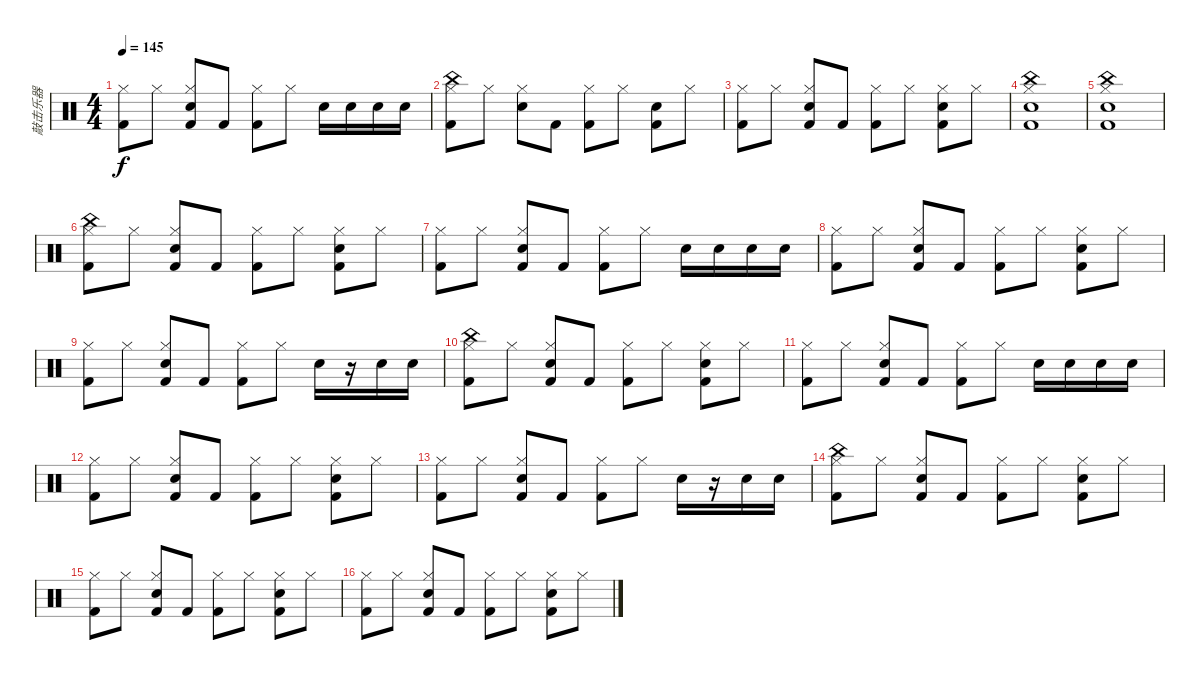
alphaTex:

\track ("敲击乐器" "敲击乐器") {instrument percussion}
\staff {score}
\articulation defaults
\ts (4 4)
\tempo 145
\clef neutral
\ks c
("Kick (hit) 2" "Hi-Hat (closed)").8{dy f} "Hi-Hat (closed)".8 ("Electric Snare (hit)" "Kick (hit) 2" "Hi-Hat (closed)").8 "Kick (hit) 2".8 ("Kick (hit) 2" "Hi-Hat (closed)").8 "Hi-Hat (closed)".8 "Electric Snare (hit)".16 "Electric Snare (hit)".16 "Electric Snare (hit)".16 "Electric Snare (hit)".16 |
("Kick (hit) 2" "Hi-Hat (closed)" "China (hit)").8 "Hi-Hat (closed)".8 ("Electric Snare (hit)" "Hi-Hat (closed)").8 "Kick (hit) 2".8 ("Kick (hit) 2" "Hi-Hat (closed)").8 "Hi-Hat (closed)".8 ("Electric Snare (hit)" "Kick (hit) 2").8 "Hi-Hat (closed)".8 |
("Kick (hit) 2" "Hi-Hat (closed)").8 "Hi-Hat (closed)".8 ("Electric Snare (hit)" "Kick (hit) 2" "Hi-Hat (closed)").8 "Kick (hit) 2".8 ("Kick (hit) 2" "Hi-Hat (closed)").8 "Hi-Hat (closed)".8 ("Electric Snare (hit)" "Kick (hit) 2" "Hi-Hat (closed)").8 "Hi-Hat (closed)".8 |
("China (hit)" "Hi-Hat (closed)" "Kick (hit) 2" "Electric Snare (hit)").1 |
("China (hit)" "Hi-Hat (closed)" "Kick (hit) 2" "Electric Snare (hit)").1 |
("Kick (hit) 2" "Hi-Hat (closed)" "China (hit)").8 "Hi-Hat (closed)".8 ("Electric Snare (hit)" "Kick (hit) 2" "Hi-Hat (closed)").8 "Kick (hit) 2".8 ("Kick (hit) 2" "Hi-Hat (closed)").8 "Hi-Hat (closed)".8 ("Electric Snare (hit)" "Kick (hit) 2" "Hi-Hat (closed)").8 "Hi-Hat (closed)".8 |
("Kick (hit) 2" "Hi-Hat (closed)").8 "Hi-Hat (closed)".8 ("Electric Snare (hit)" "Kick (hit) 2" "Hi-Hat (closed)").8 "Kick (hit) 2".8 ("Kick (hit) 2" "Hi-Hat (closed)").8 "Hi-Hat (closed)".8 "Electric Snare (hit)".16 "Electric Snare (hit)".16 "Electric Snare (hit)".16 "Electric Snare (hit)".16 |
("Kick (hit) 2" "Hi-Hat (closed)").8 "Hi-Hat (closed)".8 ("Electric Snare (hit)" "Kick (hit) 2" "Hi-Hat (closed)").8 "Kick (hit) 2".8 ("Kick (hit) 2" "Hi-Hat (closed)").8 "Hi-Hat (closed)".8 ("Electric Snare (hit)" "Kick (hit) 2" "Hi-Hat (closed)").8 "Hi-Hat (closed)".8 |
("Kick (hit) 2" "Hi-Hat (closed)").8 "Hi-Hat (closed)".8 ("Electric Snare (hit)" "Kick (hit) 2" "Hi-Hat (closed)").8 "Kick (hit) 2".8 ("Kick (hit) 2" "Hi-Hat (closed)").8 "Hi-Hat (closed)".8 "Electric Snare (hit)".16 r.16 "Electric Snare (hit)".16 "Electric Snare (hit)".16 |
("Kick (hit) 2" "Hi-Hat (closed)" "China (hit)").8 "Hi-Hat (closed)".8 ("Electric Snare (hit)" "Kick (hit) 2" "Hi-Hat (closed)").8 "Kick (hit) 2".8 ("Kick (hit) 2" "Hi-Hat (closed)").8 "Hi-Hat (closed)".8 ("Electric Snare (hit)" "Kick (hit) 2" "Hi-Hat (closed)").8 "Hi-Hat (closed)".8 |
("Kick (hit) 2" "Hi-Hat (closed)").8 "Hi-Hat (closed)".8 ("Electric Snare (hit)" "Kick (hit) 2" "Hi-Hat (closed)").8 "Kick (hit) 2".8 ("Kick (hit) 2" "Hi-Hat (closed)").8 "Hi-Hat (closed)".8 "Electric Snare (hit)".16 "Electric Snare (hit)".16 "Electric Snare (hit)".16 "Electric Snare (hit)".16 |
("Kick (hit) 2" "Hi-Hat (closed)").8 "Hi-Hat (closed)".8 ("Electric Snare (hit)" "Kick (hit) 2" "Hi-Hat (closed)").8 "Kick (hit) 2".8 ("Kick (hit) 2" "Hi-Hat (closed)").8 "Hi-Hat (closed)".8 ("Electric Snare (hit)" "Kick (hit) 2" "Hi-Hat (closed)").8 "Hi-Hat (closed)".8 |
("Kick (hit) 2" "Hi-Hat (closed)").8 "Hi-Hat (closed)".8 ("Electric Snare (hit)" "Kick (hit) 2" "Hi-Hat (closed)").8 "Kick (hit) 2".8 ("Kick (hit) 2" "Hi-Hat (closed)").8 "Hi-Hat (closed)".8 "Electric Snare (hit)".16 r.16 "Electric Snare (hit)".16 "Electric Snare (hit)".16 |
("Kick (hit) 2" "Hi-Hat (closed)" "China (hit)").8 "Hi-Hat (closed)".8 ("Electric Snare (hit)" "Kick (hit) 2" "Hi-Hat (closed)").8 "Kick (hit) 2".8 ("Kick (hit) 2" "Hi-Hat (closed)").8 "Hi-Hat (closed)".8 ("Electric Snare (hit)" "Kick (hit) 2" "Hi-Hat (closed)").8 "Hi-Hat (closed)".8 |
("Kick (hit) 2" "Hi-Hat (closed)").8 "Hi-Hat (closed)".8 ("Electric Snare (hit)" "Kick (hit) 2" "Hi-Hat (closed)").8 "Kick (hit) 2".8 ("Kick (hit) 2" "Hi-Hat (closed)").8 "Hi-Hat (closed)".8 ("Electric Snare (hit)" "Kick (hit) 2" "Hi-Hat (closed)").8 "Hi-Hat (closed)".8 |
("Kick (hit) 2" "Hi-Hat (closed)").8 "Hi-Hat (closed)".8 ("Electric Snare (hit)" "Kick (hit) 2" "Hi-Hat (closed)").8 "Kick (hit) 2".8 ("Kick (hit) 2" "Hi-Hat (closed)").8 "Hi-Hat (closed)".8 ("Electric Snare (hit)" "Kick (hit) 2" "Hi-Hat (closed)").8 "Hi-Hat (closed)".8
